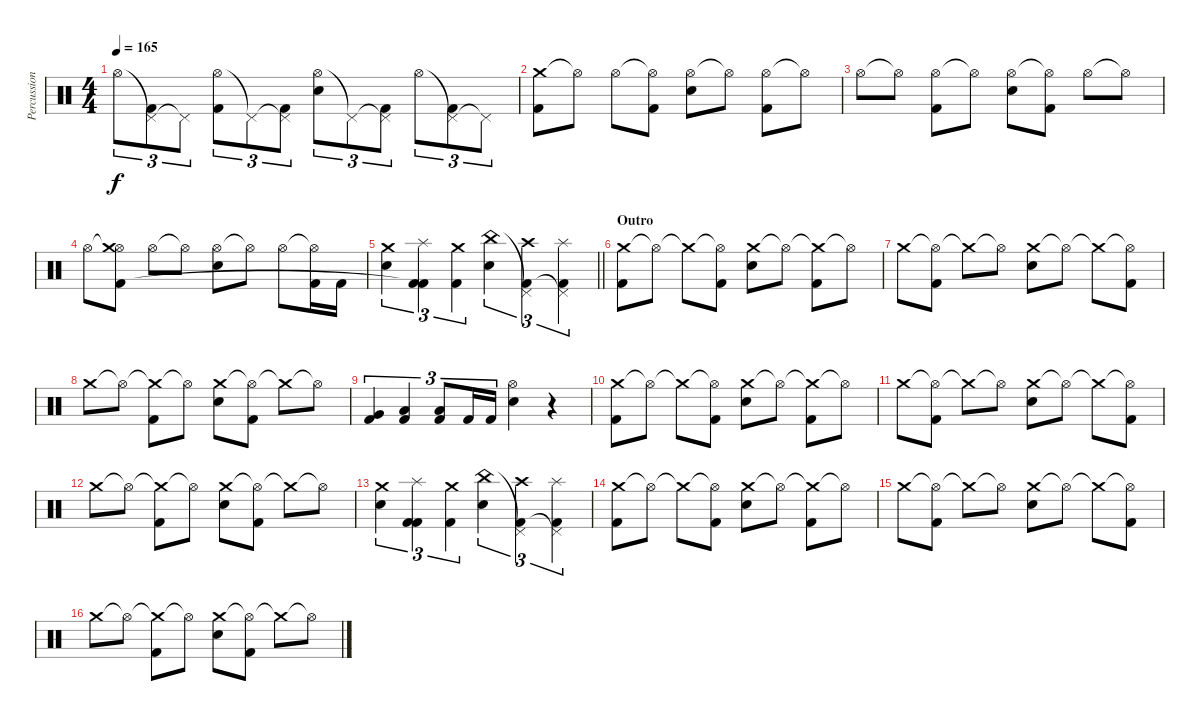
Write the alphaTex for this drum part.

\track ("Percussion" "Percussion") {instrument percussion}
\staff {score}
\articulation defaults
\ts (4 4)
\tempo 165
\clef neutral
\ks c "Hi-Hat (open)".8{tu (3 2) dy f}
("Pedal Hi-Hat (hit)"{t} "Kick (hit) 2").8{tu (3 2)} "Pedal Hi-Hat (hit)"{t}.8{tu (3 2)} ("Hi-Hat (open)" "Kick (hit) 2").8{tu (3 2)} "Pedal Hi-Hat (hit)"{t}.8{tu (3 2)} ("Pedal Hi-Hat (hit)"{t} "Kick (hit) 2").8{tu (3 2)} ("Hi-Hat (open)" "Electric Snare (hit)").8{tu (3 2)} "Pedal Hi-Hat (hit)"{t}.8{tu (3 2)} ("Pedal Hi-Hat (hit)"{t} "Kick (hit) 2").8{tu (3 2)} "Hi-Hat (open)".8{tu (3 2)} ("Pedal Hi-Hat (hit)"{t} "Kick (hit) 2").8{tu (3 2)} "Pedal Hi-Hat (hit)"{t}.8{tu (3 2)} |
("Crash medium (hit)" "Kick (hit) 2").8 "Hi-Hat (open)"{t}.8 "Hi-Hat (open)".8 ("Hi-Hat (open)"{t} "Kick (hit) 2").8 ("Hi-Hat (open)" "Electric Snare (hit)").8 "Hi-Hat (open)"{t}.8 ("Hi-Hat (open)" "Kick (hit) 2").8 "Hi-Hat (open)"{t}.8 |
"Hi-Hat (open)".8 "Hi-Hat (open)"{t}.8 ("Hi-Hat (open)" "Kick (hit) 2").8 "Hi-Hat (open)"{t}.8 ("Hi-Hat (open)" "Electric Snare (hit)").8 ("Hi-Hat (open)"{t} "Kick (hit) 2").8 "Hi-Hat (open)".8 "Hi-Hat (open)"{t}.8 |
"Hi-Hat (open)".8 ("Hi-Hat (open)"{t} "Crash medium (hit)" "Kick (hit) 2").8 "Hi-Hat (open)".8 "Hi-Hat (open)"{t}.8 ("Hi-Hat (open)" "Electric Snare (hit)").8 "Hi-Hat (open)"{t}.8 "Hi-Hat (open)".8 ("Hi-Hat (open)"{t} "Kick (hit) 2").16 "Kick (hit) 2".16 |
\barLineRight lightlight
("Crash medium (hit)" "Electric Snare (hit)").4{tu (3 2)} ("Kick (hit) 2" "Splash (hit)" "Kick (hit) 2"{t}).4{tu (3 2)} ("Kick (hit) 2" "Crash medium (hit)").4{tu (3 2)} ("Electric Snare (hit)" "China (hit)").4{tu (3 2)} ("Kick (hit) 2" "Pedal Hi-Hat (hit)"{t} "Crash high (hit)").4{tu (3 2)} ("Pedal Hi-Hat (hit)"{t} "Splash (hit)" "Kick (hit) 2").4{tu (3 2)} |
\section ("" "Outro")
("Crash medium (hit)" "Kick (hit) 2").8 "Hi-Hat (open)"{t}.8 "Crash medium (hit)"{t}.8 ("Hi-Hat (open)"{t} "Kick (hit) 2").8 ("Crash medium (hit)" "Electric Snare (hit)").8 "Hi-Hat (open)"{t}.8 ("Crash medium (hit)"{t} "Kick (hit) 2").8 "Hi-Hat (open)"{t}.8 |
"Crash medium (hit)".8 ("Hi-Hat (open)"{t} "Kick (hit) 2").8 "Crash medium (hit)"{t}.8 "Hi-Hat (open)"{t}.8 ("Crash medium (hit)" "Electric Snare (hit)").8 "Hi-Hat (open)"{t}.8 "Crash medium (hit)"{t}.8 ("Hi-Hat (open)"{t} "Kick (hit) 2").8 |
"Crash medium (hit)".8 "Hi-Hat (open)"{t}.8 ("Crash medium (hit)"{t} "Kick (hit) 2").8 "Hi-Hat (open)"{t}.8 ("Crash medium (hit)" "Electric Snare (hit)").8 ("Hi-Hat (open)"{t} "Kick (hit) 2").8 "Crash medium (hit)"{t}.8 "Hi-Hat (open)"{t}.8 |
("Kick (hit) 2" "Very Low Tom (hit)").4{tu (3 2)} ("Kick (hit) 2" "Low Floor Tom (hit)").4{tu (3 2)} ("Kick (hit) 2" "Low Floor Tom (hit)").8{tu (3 2)} "Kick (hit) 2".16{tu (3 2)} "Kick (hit) 2".16{tu (3 2)} ("Hi-Hat (open)" "Electric Snare (hit)").4 r.4 |
("Crash medium (hit)" "Kick (hit) 2").8 "Hi-Hat (open)"{t}.8 "Crash medium (hit)"{t}.8 ("Hi-Hat (open)"{t} "Kick (hit) 2").8 ("Crash medium (hit)" "Electric Snare (hit)").8 "Hi-Hat (open)"{t}.8 ("Crash medium (hit)"{t} "Kick (hit) 2").8 "Hi-Hat (open)"{t}.8 |
"Crash medium (hit)".8 ("Hi-Hat (open)"{t} "Kick (hit) 2").8 "Crash medium (hit)"{t}.8 "Hi-Hat (open)"{t}.8 ("Crash medium (hit)" "Electric Snare (hit)").8 "Hi-Hat (open)"{t}.8 "Crash medium (hit)"{t}.8 ("Hi-Hat (open)"{t} "Kick (hit) 2").8 |
"Crash medium (hit)".8 "Hi-Hat (open)"{t}.8 ("Crash medium (hit)"{t} "Kick (hit) 2").8 "Hi-Hat (open)"{t}.8 ("Crash medium (hit)" "Electric Snare (hit)").8 ("Hi-Hat (open)"{t} "Kick (hit) 2").8 "Crash medium (hit)"{t}.8 "Hi-Hat (open)"{t}.8 |
("Crash medium (hit)" "Electric Snare (hit)").4{tu (3 2)} ("Kick (hit) 2" "Splash (hit)" "Kick (hit) 2").4{tu (3 2)} ("Kick (hit) 2" "Crash medium (hit)").4{tu (3 2)} ("Electric Snare (hit)" "China (hit)").4{tu (3 2)} ("Kick (hit) 2" "Pedal Hi-Hat (hit)"{t} "Crash high (hit)").4{tu (3 2)} ("Pedal Hi-Hat (hit)"{t} "Splash (hit)" "Kick (hit) 2").4{tu (3 2)} |
("Crash medium (hit)" "Kick (hit) 2").8 "Hi-Hat (open)"{t}.8 "Crash medium (hit)"{t}.8 ("Hi-Hat (open)"{t} "Kick (hit) 2").8 ("Crash medium (hit)" "Electric Snare (hit)").8 "Hi-Hat (open)"{t}.8 ("Crash medium (hit)"{t} "Kick (hit) 2").8 "Hi-Hat (open)"{t}.8 |
"Crash medium (hit)".8 ("Hi-Hat (open)"{t} "Kick (hit) 2").8 "Crash medium (hit)"{t}.8 "Hi-Hat (open)"{t}.8 ("Crash medium (hit)" "Electric Snare (hit)").8 "Hi-Hat (open)"{t}.8 "Crash medium (hit)"{t}.8 ("Hi-Hat (open)"{t} "Kick (hit) 2").8 |
"Crash medium (hit)".8 "Hi-Hat (open)"{t}.8 ("Crash medium (hit)"{t} "Kick (hit) 2").8 "Hi-Hat (open)"{t}.8 ("Crash medium (hit)" "Electric Snare (hit)").8 ("Hi-Hat (open)"{t} "Kick (hit) 2").8 "Crash medium (hit)"{t}.8 "Hi-Hat (open)"{t}.8
